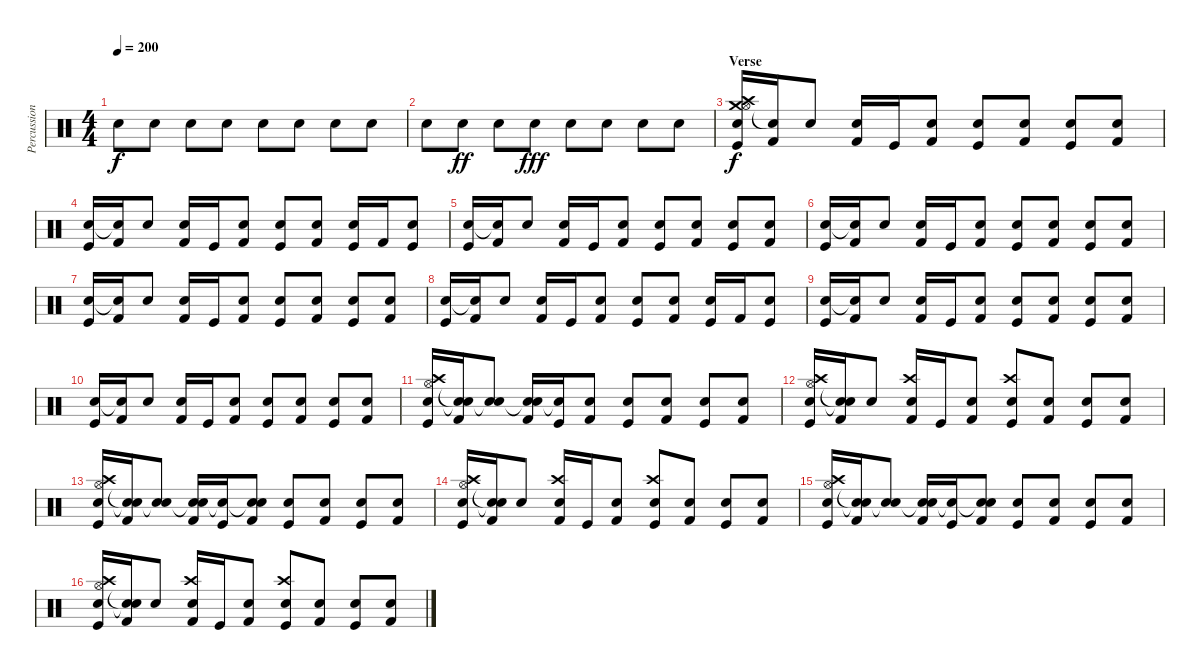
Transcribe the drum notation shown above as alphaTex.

\track ("Percussion" "Percussion") {instrument percussion}
\staff {score}
\articulation defaults
\ts (4 4)
\tempo 200
\clef neutral
\ks c "Electric Snare (hit)".8{dy f} "Snare (hit) 2".8 "Electric Snare (hit)".8 "Snare (hit) 2".8 "Electric Snare (hit)".8 "Snare (hit) 2".8 "Electric Snare (hit)".8 "Snare (hit) 2".8
|
"Electric Snare (hit)".8 "Snare (hit) 2".8{dy ff} "Electric Snare (hit)".8 "Snare (hit) 2".8{dy fff} "Electric Snare (hit)".8 "Snare (hit) 2".8 "Electric Snare (hit)".8 "Snare (hit) 2".8 |
\section ("" "Verse")
("Crash medium (hit)" "Snare (hit) 2" "Crash high (hit)" "Hi-Hat (open)" "Kick (hit)").16{dy f} ("Snare (hit) 2"{t} "Kick (hit) 2").16 "Electric Snare (hit)".8 ("Snare (hit) 2" "Kick (hit) 2").16 "Kick (hit)".16 ("Electric Snare (hit)" "Kick (hit) 2").8 ("Snare (hit) 2" "Kick (hit)").8 ("Electric Snare (hit)" "Kick (hit) 2").8 ("Snare (hit) 2" "Kick (hit)").8 ("Electric Snare (hit)" "Kick (hit) 2").8 |
("Snare (hit) 2" "Kick (hit)").16 ("Snare (hit) 2"{t} "Kick (hit) 2").16 "Electric Snare (hit)".8 ("Snare (hit) 2" "Kick (hit) 2").16 "Kick (hit)".16 ("Electric Snare (hit)" "Kick (hit) 2").8 ("Snare (hit) 2" "Kick (hit)").8 ("Snare (hit) 2" "Kick (hit) 2").8 ("Electric Snare (hit)" "Kick (hit)").16 "Kick (hit) 2".16 ("Electric Snare (hit)" "Kick (hit)").8 |
("Snare (hit) 2" "Kick (hit)").16 ("Snare (hit) 2"{t} "Kick (hit) 2").16 "Electric Snare (hit)".8 ("Snare (hit) 2" "Kick (hit) 2").16 "Kick (hit)".16 ("Electric Snare (hit)" "Kick (hit) 2").8 ("Snare (hit) 2" "Kick (hit)").8 ("Electric Snare (hit)" "Kick (hit) 2").8 ("Snare (hit) 2" "Kick (hit)").8 ("Electric Snare (hit)" "Kick (hit) 2").8 |
("Snare (hit) 2" "Kick (hit)").16 ("Snare (hit) 2"{t} "Kick (hit) 2").16 "Electric Snare (hit)".8 ("Snare (hit) 2" "Kick (hit) 2").16 "Kick (hit)".16 ("Electric Snare (hit)" "Kick (hit) 2").8 ("Snare (hit) 2" "Kick (hit)").8 ("Electric Snare (hit)" "Kick (hit) 2").8 ("Snare (hit) 2" "Kick (hit)").8 ("Electric Snare (hit)" "Kick (hit) 2").8 |
("Snare (hit) 2" "Kick (hit)").16 ("Snare (hit) 2"{t} "Kick (hit) 2").16 "Electric Snare (hit)".8 ("Snare (hit) 2" "Kick (hit) 2").16 "Kick (hit)".16 ("Electric Snare (hit)" "Kick (hit) 2").8 ("Snare (hit) 2" "Kick (hit)").8 ("Electric Snare (hit)" "Kick (hit) 2").8 ("Snare (hit) 2" "Kick (hit)").8 ("Electric Snare (hit)" "Kick (hit) 2").8 |
("Snare (hit) 2" "Kick (hit)").16 ("Snare (hit) 2"{t} "Kick (hit) 2").16 "Electric Snare (hit)".8 ("Snare (hit) 2" "Kick (hit) 2").16 "Kick (hit)".16 ("Electric Snare (hit)" "Kick (hit) 2").8 ("Snare (hit) 2" "Kick (hit)").8 ("Snare (hit) 2" "Kick (hit) 2").8 ("Electric Snare (hit)" "Kick (hit)").16 "Kick (hit) 2".16 ("Electric Snare (hit)" "Kick (hit)").8 |
("Snare (hit) 2" "Kick (hit)").16 ("Snare (hit) 2"{t} "Kick (hit) 2").16 "Electric Snare (hit)".8 ("Snare (hit) 2" "Kick (hit) 2").16 "Kick (hit)".16 ("Electric Snare (hit)" "Kick (hit) 2").8 ("Snare (hit) 2" "Kick (hit)").8 ("Electric Snare (hit)" "Kick (hit) 2").8 ("Snare (hit) 2" "Kick (hit)").8 ("Electric Snare (hit)" "Kick (hit) 2").8 |
("Snare (hit) 2" "Kick (hit)").16 ("Snare (hit) 2"{t} "Kick (hit) 2").16 "Electric Snare (hit)".8 ("Snare (hit) 2" "Kick (hit) 2").16 "Kick (hit)".16 ("Electric Snare (hit)" "Kick (hit) 2").8 ("Snare (hit) 2" "Kick (hit)").8 ("Electric Snare (hit)" "Kick (hit) 2").8 ("Snare (hit) 2" "Kick (hit)").8 ("Electric Snare (hit)" "Kick (hit) 2").8 |
("Hi-Hat (open)" "Snare (hit) 2" "Crash high (hit)" "Kick (hit)").16 ("Snare (hit)"{t} "Snare (hit) 2"{t} "Kick (hit) 2").16 ("Snare (hit)"{t} "Electric Snare (hit)").8 ("Snare (hit)"{t} "Snare (hit) 2" "Kick (hit) 2").16 ("Snare (hit)"{t} "Kick (hit)").16 ("Electric Snare (hit)" "Kick (hit) 2").8 ("Snare (hit) 2" "Kick (hit)").8 ("Electric Snare (hit)" "Kick (hit) 2").8 ("Snare (hit) 2" "Kick (hit)").8 ("Electric Snare (hit)" "Kick (hit) 2").8 |
("Hi-Hat (open)" "Snare (hit) 2" "Crash high (hit)" "Kick (hit)").16 ("Snare (hit)"{t} "Snare (hit) 2"{t} "Kick (hit) 2").16 "Electric Snare (hit)".8 ("Crash high (hit)" "Snare (hit) 2" "Kick (hit) 2").16 "Kick (hit)".16 ("Electric Snare (hit)" "Kick (hit) 2").8 ("Crash high (hit)" "Snare (hit) 2" "Kick (hit)").8 ("Electric Snare (hit)" "Kick (hit) 2").8 ("Snare (hit) 2" "Kick (hit)").8 ("Electric Snare (hit)" "Kick (hit) 2").8 |
("Hi-Hat (open)" "Snare (hit) 2" "Crash high (hit)" "Kick (hit)").16 ("Snare (hit)"{t} "Snare (hit) 2"{t} "Kick (hit) 2").16 ("Snare (hit)"{t} "Electric Snare (hit)").8 ("Snare (hit)"{t} "Snare (hit) 2" "Kick (hit) 2").16 ("Snare (hit)"{t} "Kick (hit)").16 ("Snare (hit)"{t} "Electric Snare (hit)" "Kick (hit) 2").8 ("Snare (hit) 2" "Kick (hit)").8 ("Electric Snare (hit)" "Kick (hit) 2").8 ("Snare (hit) 2" "Kick (hit)").8 ("Electric Snare (hit)" "Kick (hit) 2").8 |
("Hi-Hat (open)" "Snare (hit) 2" "Crash high (hit)" "Kick (hit)").16 ("Snare (hit)"{t} "Snare (hit) 2"{t} "Kick (hit) 2").16 "Electric Snare (hit)".8 ("Crash high (hit)" "Snare (hit) 2" "Kick (hit) 2").16 "Kick (hit)".16 ("Electric Snare (hit)" "Kick (hit) 2").8 ("Crash high (hit)" "Snare (hit) 2" "Kick (hit)").8 ("Electric Snare (hit)" "Kick (hit) 2").8 ("Snare (hit) 2" "Kick (hit)").8 ("Electric Snare (hit)" "Kick (hit) 2").8 |
("Hi-Hat (open)" "Snare (hit) 2" "Crash high (hit)" "Kick (hit)").16 ("Snare (hit)"{t} "Snare (hit) 2"{t} "Kick (hit) 2").16 ("Snare (hit)"{t} "Electric Snare (hit)").8 ("Snare (hit)"{t} "Snare (hit) 2" "Kick (hit) 2").16 ("Snare (hit)"{t} "Kick (hit)").16 ("Snare (hit)"{t} "Electric Snare (hit)" "Kick (hit) 2").8 ("Snare (hit) 2" "Kick (hit)").8 ("Electric Snare (hit)" "Kick (hit) 2").8 ("Snare (hit) 2" "Kick (hit)").8 ("Electric Snare (hit)" "Kick (hit) 2").8 |
("Hi-Hat (open)" "Snare (hit) 2" "Crash high (hit)" "Kick (hit)").16 ("Snare (hit)"{t} "Snare (hit) 2"{t} "Kick (hit) 2").16 "Electric Snare (hit)".8 ("Crash high (hit)" "Snare (hit) 2" "Kick (hit) 2").16 "Kick (hit)".16 ("Electric Snare (hit)" "Kick (hit) 2").8 ("Crash high (hit)" "Snare (hit) 2" "Kick (hit)").8 ("Electric Snare (hit)" "Kick (hit) 2").8 ("Snare (hit) 2" "Kick (hit)").8 ("Electric Snare (hit)" "Kick (hit) 2").8
